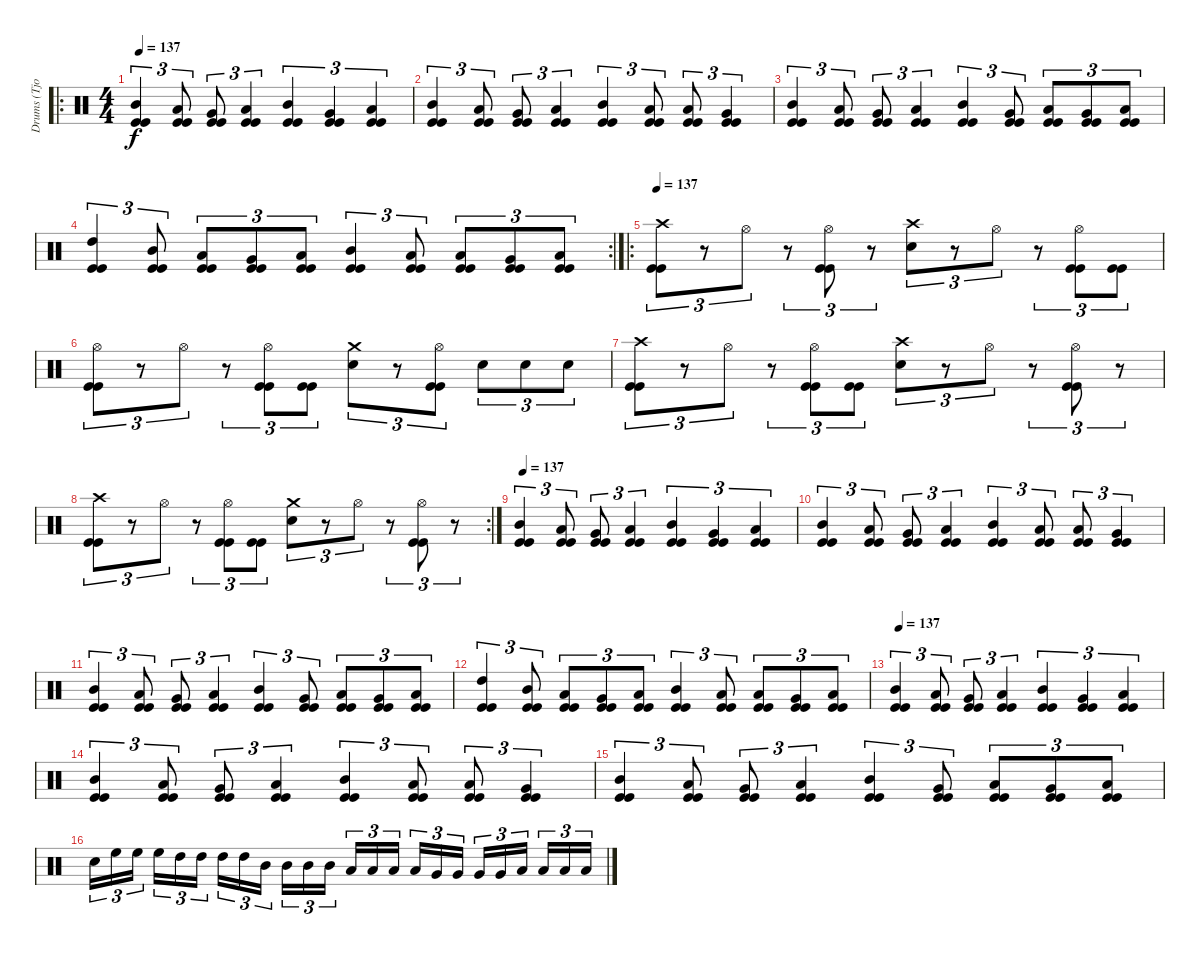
\track ("Drums (Tjodalv)" "Drums (Tjo") {instrument percussion}
\staff {score}
\articulation defaults
\ro
\ts (4 4)
\tempo 137
\clef neutral
\ks c
("Mid Tom (hit)" "Kick (hit)" "Kick (hit)").4{tu (3 2) dy f} ("Low Tom (hit)" "Kick (hit)" "Kick (hit)").8{tu (3 2)} ("Very Low Tom (hit)" "Kick (hit)" "Kick (hit)").8{tu (3 2)} ("Low Floor Tom (hit)" "Kick (hit)" "Kick (hit)").4{tu (3 2)} ("Mid Tom (hit)" "Kick (hit)" "Kick (hit)").4{tu (3 2) bd 120} ("Very Low Tom (hit)" "Kick (hit)" "Kick (hit)").4{tu (3 2) bd 120} ("Low Tom (hit)" "Kick (hit)" "Kick (hit)").4{tu (3 2) bd 120} |
("Mid Tom (hit)" "Kick (hit)" "Kick (hit)").4{tu (3 2)} ("Low Tom (hit)" "Kick (hit)" "Kick (hit)").8{tu (3 2) bd 120} ("Very Low Tom (hit)" "Kick (hit)" "Kick (hit)").8{tu (3 2) bd 120} ("Low Floor Tom (hit)" "Kick (hit)" "Kick (hit)").4{tu (3 2) bd 120} ("Mid Tom (hit)" "Kick (hit)" "Kick (hit)").4{tu (3 2) bd 120} ("Low Tom (hit)" "Kick (hit)" "Kick (hit)").8{tu (3 2) bd 120} ("Low Tom (hit)" "Kick (hit)" "Kick (hit)").8{tu (3 2) bd 120} ("Very Low Tom (hit)" "Kick (hit)" "Kick (hit)").4{tu (3 2) bd 120} |
("Mid Tom (hit)" "Kick (hit)" "Kick (hit)").4{tu (3 2)} ("Low Tom (hit)" "Kick (hit)" "Kick (hit)").8{tu (3 2) bd 120} ("Very Low Tom (hit)" "Kick (hit)" "Kick (hit)").8{tu (3 2) bd 120} ("Low Floor Tom (hit)" "Kick (hit)" "Kick (hit)").4{tu (3 2) bd 120} ("Mid Tom (hit)" "Kick (hit)" "Kick (hit)").4{tu (3 2) bd 120} ("Very Low Tom (hit)" "Kick (hit)" "Kick (hit)").8{tu (3 2) bd 120} ("Low Tom (hit)" "Kick (hit)" "Kick (hit)").8{tu (3 2) bd 120} ("Very Low Tom (hit)" "Kick (hit)" "Kick (hit)").8{tu (3 2) bd 120} ("Low Floor Tom (hit)" "Kick (hit)" "Kick (hit)").8{tu (3 2)} |
\rc 2
("High Tom (hit)" "Kick (hit)" "Kick (hit)").4{tu (3 2) bd 120} ("Mid Tom (hit)" "Kick (hit)" "Kick (hit)").8{tu (3 2) bd 120} ("Low Tom (hit)" "Kick (hit)" "Kick (hit)").8{tu (3 2) bd 120} ("Very Low Tom (hit)" "Kick (hit)" "Kick (hit)").8{tu (3 2) bd 120} ("Low Floor Tom (hit)" "Kick (hit)" "Kick (hit)").8{tu (3 2) bd 120} ("Mid Tom (hit)" "Kick (hit)" "Kick (hit)").4{tu (3 2) bd 120} ("Low Tom (hit)" "Kick (hit)" "Kick (hit)").8{tu (3 2) bd 120} ("Low Tom (hit)" "Kick (hit)" "Kick (hit)").8{tu (3 2) bd 120} ("Very Low Tom (hit)" "Kick (hit)" "Kick (hit)").8{tu (3 2) bd 120} ("Low Floor Tom (hit)" "Kick (hit)" "Kick (hit)").8{tu (3 2) bd 120} |
\ro
\tempo 137
("Crash high (hit)" "Kick (hit)" "Kick (hit)").8{tu (3 2)} r.8{tu (3 2)} "Hi-Hat (open)".8{tu (3 2)} r.8{tu (3 2)} ("Hi-Hat (open)" "Kick (hit)" "Kick (hit)").8{tu (3 2)} r.8{tu (3 2)} ("Snare (hit) 2" "Crash high (hit)").8{tu (3 2)} r.8{tu (3 2)} "Hi-Hat (open)".8{tu (3 2)} r.8{tu (3 2)} ("Hi-Hat (open)" "Kick (hit)" "Kick (hit)").8{tu (3 2)} ("Kick (hit)" "Kick (hit)").8{tu (3 2)} |
("Hi-Hat (open)" "Kick (hit)" "Kick (hit)").8{tu (3 2)} r.8{tu (3 2)} "Hi-Hat (open)".8{tu (3 2)} r.8{tu (3 2)} ("Hi-Hat (open)" "Kick (hit)" "Kick (hit)").8{tu (3 2)} ("Kick (hit)" "Kick (hit)").8{tu (3 2)} ("Snare (hit) 2" "Crash medium (hit)").8{tu (3 2)} r.8{tu (3 2)} ("Hi-Hat (open)" "Kick (hit)" "Kick (hit)").8{tu (3 2)} "Snare (hit) 2".8{tu (3 2)} "Snare (hit) 2".8{tu (3 2)} "Snare (hit) 2".8{tu (3 2)} |
("Crash high (hit)" "Kick (hit)" "Kick (hit)").8{tu (3 2)} r.8{tu (3 2)} "Hi-Hat (open)".8{tu (3 2)} r.8{tu (3 2)} ("Hi-Hat (open)" "Kick (hit)" "Kick (hit)").8{tu (3 2)} ("Kick (hit)" "Kick (hit)").8{tu (3 2)} ("Snare (hit) 2" "Crash high (hit)").8{tu (3 2)} r.8{tu (3 2)} "Hi-Hat (open)".8{tu (3 2)} r.8{tu (3 2)} ("Hi-Hat (open)" "Kick (hit)" "Kick (hit)").8{tu (3 2)} r.8{tu (3 2)} |
\rc 2
("Crash high (hit)" "Kick (hit)" "Kick (hit)").8{tu (3 2)} r.8{tu (3 2)} "Hi-Hat (open)".8{tu (3 2)} r.8{tu (3 2)} ("Hi-Hat (open)" "Kick (hit)" "Kick (hit)").8{tu (3 2)} ("Kick (hit)" "Kick (hit)").8{tu (3 2)} ("Snare (hit) 2" "Crash medium (hit)").8{tu (3 2)} r.8{tu (3 2)} "Hi-Hat (open)".8{tu (3 2)} r.8{tu (3 2)} ("Hi-Hat (open)" "Kick (hit)" "Kick (hit)").8{tu (3 2)} r.8{tu (3 2)} |
\tempo 137
("Mid Tom (hit)" "Kick (hit)" "Kick (hit)").4{tu (3 2)} ("Low Tom (hit)" "Kick (hit)" "Kick (hit)").8{tu (3 2)} ("Very Low Tom (hit)" "Kick (hit)" "Kick (hit)").8{tu (3 2)} ("Low Floor Tom (hit)" "Kick (hit)" "Kick (hit)").4{tu (3 2)} ("Mid Tom (hit)" "Kick (hit)" "Kick (hit)").4{tu (3 2) bd 120} ("Very Low Tom (hit)" "Kick (hit)" "Kick (hit)").4{tu (3 2) bd 120} ("Low Tom (hit)" "Kick (hit)" "Kick (hit)").4{tu (3 2) bd 120} |
("Mid Tom (hit)" "Kick (hit)" "Kick (hit)").4{tu (3 2)} ("Low Tom (hit)" "Kick (hit)" "Kick (hit)").8{tu (3 2) bd 120} ("Very Low Tom (hit)" "Kick (hit)" "Kick (hit)").8{tu (3 2) bd 120} ("Low Floor Tom (hit)" "Kick (hit)" "Kick (hit)").4{tu (3 2) bd 120} ("Mid Tom (hit)" "Kick (hit)" "Kick (hit)").4{tu (3 2) bd 120} ("Low Tom (hit)" "Kick (hit)" "Kick (hit)").8{tu (3 2) bd 120} ("Low Tom (hit)" "Kick (hit)" "Kick (hit)").8{tu (3 2) bd 120} ("Very Low Tom (hit)" "Kick (hit)" "Kick (hit)").4{tu (3 2) bd 120} |
("Mid Tom (hit)" "Kick (hit)" "Kick (hit)").4{tu (3 2)} ("Low Tom (hit)" "Kick (hit)" "Kick (hit)").8{tu (3 2) bd 120} ("Very Low Tom (hit)" "Kick (hit)" "Kick (hit)").8{tu (3 2) bd 120} ("Low Floor Tom (hit)" "Kick (hit)" "Kick (hit)").4{tu (3 2) bd 120} ("Mid Tom (hit)" "Kick (hit)" "Kick (hit)").4{tu (3 2) bd 120} ("Very Low Tom (hit)" "Kick (hit)" "Kick (hit)").8{tu (3 2) bd 120} ("Low Tom (hit)" "Kick (hit)" "Kick (hit)").8{tu (3 2) bd 120} ("Very Low Tom (hit)" "Kick (hit)" "Kick (hit)").8{tu (3 2) bd 120} ("Low Floor Tom (hit)" "Kick (hit)" "Kick (hit)").8{tu (3 2)} |
("High Tom (hit)" "Kick (hit)" "Kick (hit)").4{tu (3 2) bd 120} ("Mid Tom (hit)" "Kick (hit)" "Kick (hit)").8{tu (3 2) bd 120} ("Low Tom (hit)" "Kick (hit)" "Kick (hit)").8{tu (3 2) bd 120} ("Very Low Tom (hit)" "Kick (hit)" "Kick (hit)").8{tu (3 2) bd 120} ("Low Floor Tom (hit)" "Kick (hit)" "Kick (hit)").8{tu (3 2) bd 120} ("Mid Tom (hit)" "Kick (hit)" "Kick (hit)").4{tu (3 2) bd 120} ("Low Tom (hit)" "Kick (hit)" "Kick (hit)").8{tu (3 2) bd 120} ("Low Tom (hit)" "Kick (hit)" "Kick (hit)").8{tu (3 2) bd 120} ("Very Low Tom (hit)" "Kick (hit)" "Kick (hit)").8{tu (3 2) bd 120} ("Low Floor Tom (hit)" "Kick (hit)" "Kick (hit)").8{tu (3 2) bd 120} |
\tempo 137
("Mid Tom (hit)" "Kick (hit)" "Kick (hit)").4{tu (3 2)} ("Low Tom (hit)" "Kick (hit)" "Kick (hit)").8{tu (3 2)} ("Very Low Tom (hit)" "Kick (hit)" "Kick (hit)").8{tu (3 2)} ("Low Floor Tom (hit)" "Kick (hit)" "Kick (hit)").4{tu (3 2)} ("Mid Tom (hit)" "Kick (hit)" "Kick (hit)").4{tu (3 2) bd 120} ("Very Low Tom (hit)" "Kick (hit)" "Kick (hit)").4{tu (3 2) bd 120} ("Low Tom (hit)" "Kick (hit)" "Kick (hit)").4{tu (3 2) bd 120} |
("Mid Tom (hit)" "Kick (hit)" "Kick (hit)").4{tu (3 2)} ("Low Tom (hit)" "Kick (hit)" "Kick (hit)").8{tu (3 2) bd 120} ("Very Low Tom (hit)" "Kick (hit)" "Kick (hit)").8{tu (3 2) bd 120} ("Low Floor Tom (hit)" "Kick (hit)" "Kick (hit)").4{tu (3 2) bd 120} ("Mid Tom (hit)" "Kick (hit)" "Kick (hit)").4{tu (3 2) bd 120} ("Low Tom (hit)" "Kick (hit)" "Kick (hit)").8{tu (3 2) bd 120} ("Low Tom (hit)" "Kick (hit)" "Kick (hit)").8{tu (3 2) bd 120} ("Very Low Tom (hit)" "Kick (hit)" "Kick (hit)").4{tu (3 2) bd 120} |
("Mid Tom (hit)" "Kick (hit)" "Kick (hit)").4{tu (3 2)} ("Low Tom (hit)" "Kick (hit)" "Kick (hit)").8{tu (3 2) bd 120} ("Very Low Tom (hit)" "Kick (hit)" "Kick (hit)").8{tu (3 2) bd 120} ("Low Floor Tom (hit)" "Kick (hit)" "Kick (hit)").4{tu (3 2) bd 120} ("Mid Tom (hit)" "Kick (hit)" "Kick (hit)").4{tu (3 2) bd 120} ("Very Low Tom (hit)" "Kick (hit)" "Kick (hit)").8{tu (3 2) bd 120} ("Low Tom (hit)" "Kick (hit)" "Kick (hit)").8{tu (3 2) bd 120} ("Very Low Tom (hit)" "Kick (hit)" "Kick (hit)").8{tu (3 2) bd 120} ("Low Floor Tom (hit)" "Kick (hit)" "Kick (hit)").8{tu (3 2)} |
"Snare (hit) 2".16{tu (3 2)} "High Floor Tom (hit)".16{tu (3 2)} "High Floor Tom (hit)".16{tu (3 2)} "High Floor Tom (hit)".16{tu (3 2)} "High Tom (hit)".16{tu (3 2)} "High Tom (hit)".16{tu (3 2)} "High Tom (hit)".16{tu (3 2)} "High Tom (hit)".16{tu (3 2)} "Mid Tom (hit)".16{tu (3 2)} "Mid Tom (hit)".16{tu (3 2)} "Mid Tom (hit)".16{tu (3 2)} "Mid Tom (hit)".16{tu (3 2)} "Low Tom (hit)".16{tu (3 2)} "Low Tom (hit)".16{tu (3 2)} "Low Tom (hit)".16{tu (3 2)} "Low Tom (hit)".16{tu (3 2)} "Very Low Tom (hit)".16{tu (3 2)} "Very Low Tom (hit)".16{tu (3 2)} "Very Low Tom (hit)".16{tu (3 2)} "Very Low Tom (hit)".16{tu (3 2)} "Low Floor Tom (hit)".16{tu (3 2)} "Low Floor Tom (hit)".16{tu (3 2)} "Low Floor Tom (hit)".16{tu (3 2)} "Low Floor Tom (hit)".16{tu (3 2)}
